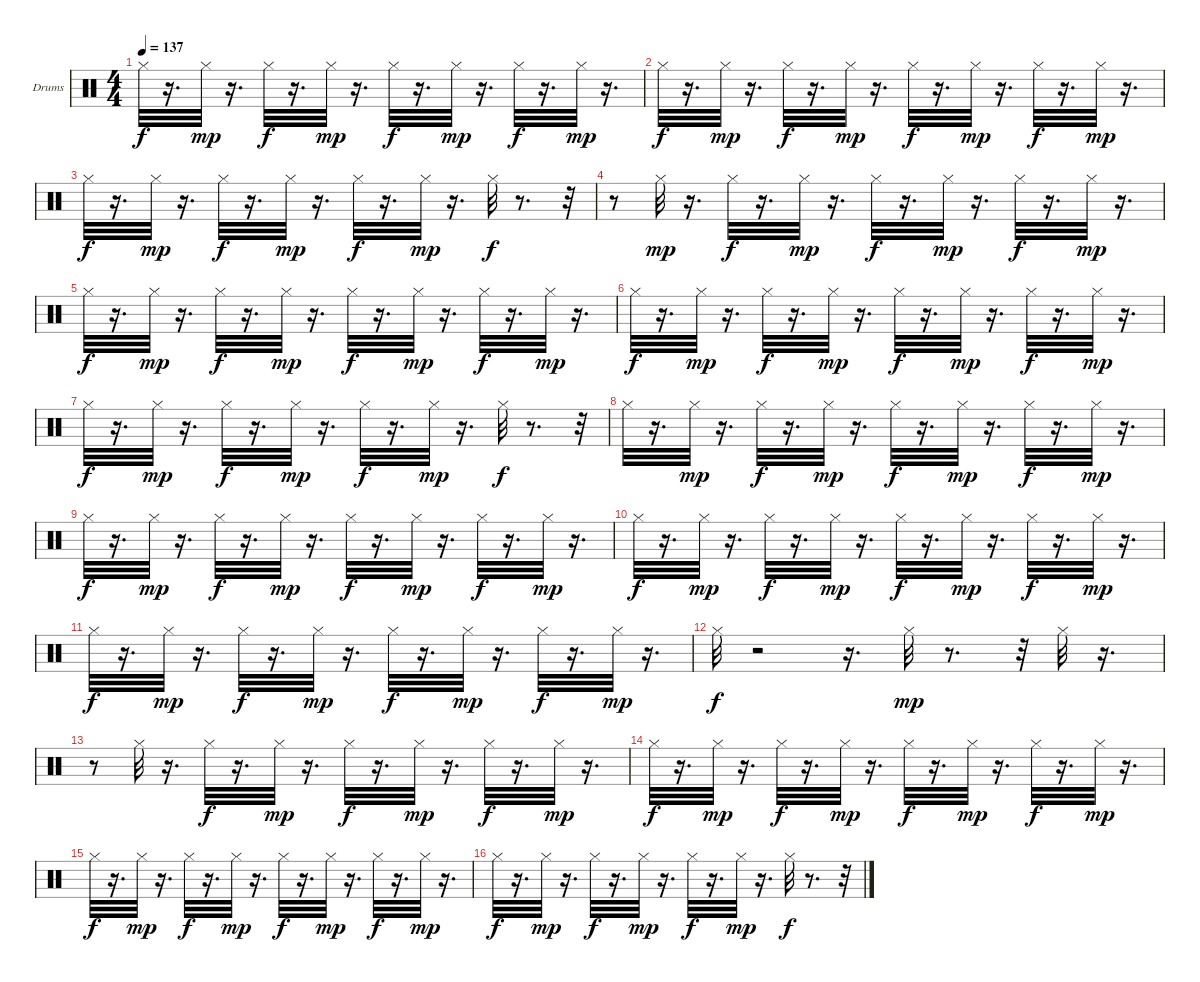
\bracketExtendMode groupsimilarinstruments
\firstSystemTrackNameOrientation horizontal
\otherSystemsTrackNameOrientation horizontal
\track ("Drumkit" "Drums") {instrument percussion}
\staff {score}
\articulation defaults
\ts (4 4)
\tempo 137
\clef neutral
\ks c "Hi-Hat (closed)".32{dy f}
r.16{d} "Hi-Hat (closed)".32{dy mp} r.16{d} "Hi-Hat (closed)".32{dy f} r.16{d} "Hi-Hat (closed)".32{dy mp} r.16{d} "Hi-Hat (closed)".32{dy f} r.16{d} "Hi-Hat (closed)".32{dy mp} r.16{d} "Hi-Hat (closed)".32{dy f} r.16{d} "Hi-Hat (closed)".32{dy mp} r.16{d} |
"Hi-Hat (closed)".32{dy f} r.16{d} "Hi-Hat (closed)".32{dy mp} r.16{d} "Hi-Hat (closed)".32{dy f} r.16{d} "Hi-Hat (closed)".32{dy mp} r.16{d} "Hi-Hat (closed)".32{dy f} r.16{d} "Hi-Hat (closed)".32{dy mp} r.16{d} "Hi-Hat (closed)".32{dy f} r.16{d} "Hi-Hat (closed)".32{dy mp} r.16{d} |
"Hi-Hat (closed)".32{dy f} r.16{d} "Hi-Hat (closed)".32{dy mp} r.16{d} "Hi-Hat (closed)".32{dy f} r.16{d} "Hi-Hat (closed)".32{dy mp} r.16{d} "Hi-Hat (closed)".32{dy f} r.16{d} "Hi-Hat (closed)".32{dy mp} r.16{d} "Hi-Hat (closed)".32{dy f} r.8{d} r.32 |
r.8 "Hi-Hat (closed)".32{dy mp} r.16{d} "Hi-Hat (closed)".32{dy f} r.16{d} "Hi-Hat (closed)".32{dy mp} r.16{d} "Hi-Hat (closed)".32{dy f} r.16{d} "Hi-Hat (closed)".32{dy mp} r.16{d} "Hi-Hat (closed)".32{dy f} r.16{d} "Hi-Hat (closed)".32{dy mp} r.16{d} |
"Hi-Hat (closed)".32{dy f} r.16{d} "Hi-Hat (closed)".32{dy mp} r.16{d} "Hi-Hat (closed)".32{dy f} r.16{d} "Hi-Hat (closed)".32{dy mp} r.16{d} "Hi-Hat (closed)".32{dy f} r.16{d} "Hi-Hat (closed)".32{dy mp} r.16{d} "Hi-Hat (closed)".32{dy f} r.16{d} "Hi-Hat (closed)".32{dy mp} r.16{d} |
"Hi-Hat (closed)".32{dy f} r.16{d} "Hi-Hat (closed)".32{dy mp} r.16{d} "Hi-Hat (closed)".32{dy f} r.16{d} "Hi-Hat (closed)".32{dy mp} r.16{d} "Hi-Hat (closed)".32{dy f} r.16{d} "Hi-Hat (closed)".32{dy mp} r.16{d} "Hi-Hat (closed)".32{dy f} r.16{d} "Hi-Hat (closed)".32{dy mp} r.16{d} |
"Hi-Hat (closed)".32{dy f} r.16{d} "Hi-Hat (closed)".32{dy mp} r.16{d} "Hi-Hat (closed)".32{dy f} r.16{d} "Hi-Hat (closed)".32{dy mp} r.16{d} "Hi-Hat (closed)".32{dy f} r.16{d} "Hi-Hat (closed)".32{dy mp} r.16{d} "Hi-Hat (closed)".32{dy f} r.8{d} r.32 |
"Hi-Hat (closed)".32 r.16{d} "Hi-Hat (closed)".32{dy mp} r.16{d} "Hi-Hat (closed)".32{dy f} r.16{d} "Hi-Hat (closed)".32{dy mp} r.16{d} "Hi-Hat (closed)".32{dy f} r.16{d} "Hi-Hat (closed)".32{dy mp} r.16{d} "Hi-Hat (closed)".32{dy f} r.16{d} "Hi-Hat (closed)".32{dy mp} r.16{d} |
"Hi-Hat (closed)".32{dy f} r.16{d} "Hi-Hat (closed)".32{dy mp} r.16{d} "Hi-Hat (closed)".32{dy f} r.16{d} "Hi-Hat (closed)".32{dy mp} r.16{d} "Hi-Hat (closed)".32{dy f} r.16{d} "Hi-Hat (closed)".32{dy mp} r.16{d} "Hi-Hat (closed)".32{dy f} r.16{d} "Hi-Hat (closed)".32{dy mp} r.16{d} |
"Hi-Hat (closed)".32{dy f} r.16{d} "Hi-Hat (closed)".32{dy mp} r.16{d} "Hi-Hat (closed)".32{dy f} r.16{d} "Hi-Hat (closed)".32{dy mp} r.16{d} "Hi-Hat (closed)".32{dy f} r.16{d} "Hi-Hat (closed)".32{dy mp} r.16{d} "Hi-Hat (closed)".32{dy f} r.16{d} "Hi-Hat (closed)".32{dy mp} r.16{d} |
"Hi-Hat (closed)".32{dy f} r.16{d} "Hi-Hat (closed)".32{dy mp} r.16{d} "Hi-Hat (closed)".32{dy f} r.16{d} "Hi-Hat (closed)".32{dy mp} r.16{d} "Hi-Hat (closed)".32{dy f} r.16{d} "Hi-Hat (closed)".32{dy mp} r.16{d} "Hi-Hat (closed)".32{dy f} r.16{d} "Hi-Hat (closed)".32{dy mp} r.16{d} |
"Hi-Hat (closed)".32{dy f} r.2 r.16{d} "Hi-Hat (closed)".32{dy mp} r.8{d} r.32 "Hi-Hat (closed)".32 r.16{d} |
r.8 "Hi-Hat (closed)".32 r.16{d} "Hi-Hat (closed)".32{dy f} r.16{d} "Hi-Hat (closed)".32{dy mp} r.16{d} "Hi-Hat (closed)".32{dy f} r.16{d} "Hi-Hat (closed)".32{dy mp} r.16{d} "Hi-Hat (closed)".32{dy f} r.16{d} "Hi-Hat (closed)".32{dy mp} r.16{d} |
"Hi-Hat (closed)".32{dy f} r.16{d} "Hi-Hat (closed)".32{dy mp} r.16{d} "Hi-Hat (closed)".32{dy f} r.16{d} "Hi-Hat (closed)".32{dy mp} r.16{d} "Hi-Hat (closed)".32{dy f} r.16{d} "Hi-Hat (closed)".32{dy mp} r.16{d} "Hi-Hat (closed)".32{dy f} r.16{d} "Hi-Hat (closed)".32{dy mp} r.16{d} |
"Hi-Hat (closed)".32{dy f} r.16{d} "Hi-Hat (closed)".32{dy mp} r.16{d} "Hi-Hat (closed)".32{dy f} r.16{d} "Hi-Hat (closed)".32{dy mp} r.16{d} "Hi-Hat (closed)".32{dy f} r.16{d} "Hi-Hat (closed)".32{dy mp} r.16{d} "Hi-Hat (closed)".32{dy f} r.16{d} "Hi-Hat (closed)".32{dy mp} r.16{d} |
"Hi-Hat (closed)".32{dy f} r.16{d} "Hi-Hat (closed)".32{dy mp} r.16{d} "Hi-Hat (closed)".32{dy f} r.16{d} "Hi-Hat (closed)".32{dy mp} r.16{d} "Hi-Hat (closed)".32{dy f} r.16{d} "Hi-Hat (closed)".32{dy mp} r.16{d} "Hi-Hat (closed)".32{dy f} r.8{d} r.32
